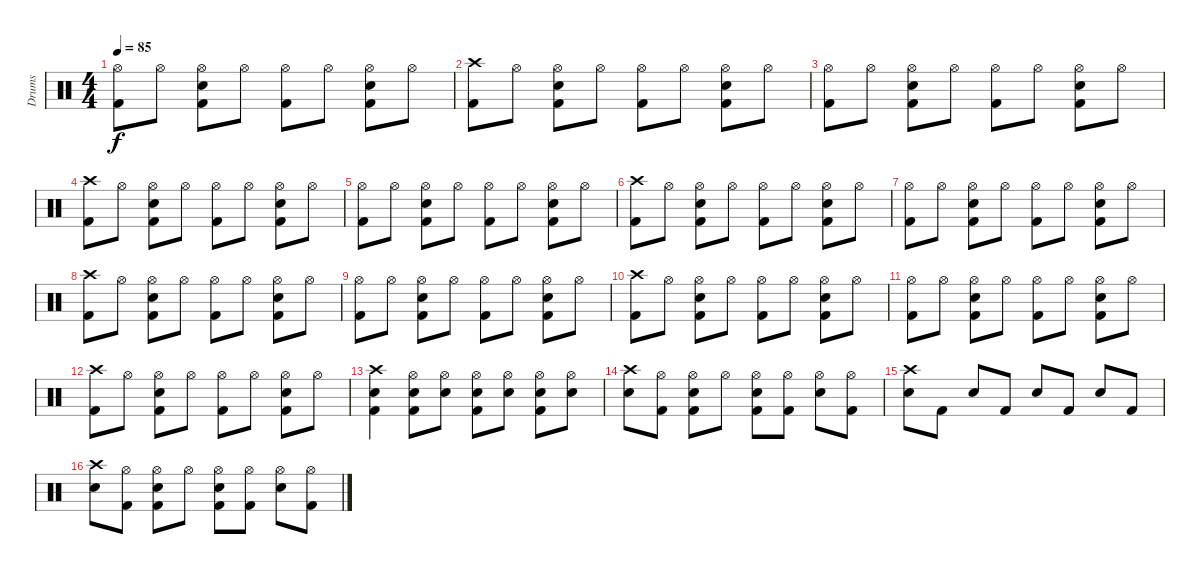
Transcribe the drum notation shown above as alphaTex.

\track ("Drums" "Drums") {instrument percussion}
\staff {score}
\articulation defaults
\ts (4 4)
\tempo 85
\clef neutral
\ks c
("Kick (hit) 2" "Hi-Hat (open)").8{dy f} "Hi-Hat (open)".8 ("Hi-Hat (open)" "Electric Snare (hit)" "Kick (hit) 2").8 "Hi-Hat (open)".8 ("Hi-Hat (open)" "Kick (hit) 2").8 "Hi-Hat (open)".8 ("Hi-Hat (open)" "Electric Snare (hit)" "Kick (hit) 2").8 "Hi-Hat (open)".8 |
("Crash high (hit)" "Kick (hit) 2").8 "Hi-Hat (open)".8 ("Hi-Hat (open)" "Electric Snare (hit)" "Kick (hit) 2").8 "Hi-Hat (open)".8 ("Hi-Hat (open)" "Kick (hit) 2").8 "Hi-Hat (open)".8 ("Hi-Hat (open)" "Electric Snare (hit)" "Kick (hit) 2").8 "Hi-Hat (open)".8 |
("Kick (hit) 2" "Hi-Hat (open)").8 "Hi-Hat (open)".8 ("Hi-Hat (open)" "Electric Snare (hit)" "Kick (hit) 2").8 "Hi-Hat (open)".8 ("Hi-Hat (open)" "Kick (hit) 2").8 "Hi-Hat (open)".8 ("Hi-Hat (open)" "Electric Snare (hit)" "Kick (hit) 2").8 "Hi-Hat (open)".8 |
("Crash high (hit)" "Kick (hit) 2").8 "Hi-Hat (open)".8 ("Hi-Hat (open)" "Electric Snare (hit)" "Kick (hit) 2").8 "Hi-Hat (open)".8 ("Hi-Hat (open)" "Kick (hit) 2").8 "Hi-Hat (open)".8 ("Hi-Hat (open)" "Electric Snare (hit)" "Kick (hit) 2").8 "Hi-Hat (open)".8 |
("Kick (hit) 2" "Hi-Hat (open)").8 "Hi-Hat (open)".8 ("Hi-Hat (open)" "Electric Snare (hit)" "Kick (hit) 2").8 "Hi-Hat (open)".8 ("Hi-Hat (open)" "Kick (hit) 2").8 "Hi-Hat (open)".8 ("Hi-Hat (open)" "Electric Snare (hit)" "Kick (hit) 2").8 "Hi-Hat (open)".8 |
("Crash high (hit)" "Kick (hit) 2").8 "Hi-Hat (open)".8 ("Hi-Hat (open)" "Electric Snare (hit)" "Kick (hit) 2").8 "Hi-Hat (open)".8 ("Hi-Hat (open)" "Kick (hit) 2").8 "Hi-Hat (open)".8 ("Hi-Hat (open)" "Electric Snare (hit)" "Kick (hit) 2").8 "Hi-Hat (open)".8 |
("Kick (hit) 2" "Hi-Hat (open)").8 "Hi-Hat (open)".8 ("Hi-Hat (open)" "Electric Snare (hit)" "Kick (hit) 2").8 "Hi-Hat (open)".8 ("Hi-Hat (open)" "Kick (hit) 2").8 "Hi-Hat (open)".8 ("Hi-Hat (open)" "Electric Snare (hit)" "Kick (hit) 2").8 "Hi-Hat (open)".8 |
("Crash high (hit)" "Kick (hit) 2").8 "Hi-Hat (open)".8 ("Hi-Hat (open)" "Electric Snare (hit)" "Kick (hit) 2").8 "Hi-Hat (open)".8 ("Hi-Hat (open)" "Kick (hit) 2").8 "Hi-Hat (open)".8 ("Hi-Hat (open)" "Electric Snare (hit)" "Kick (hit) 2").8 "Hi-Hat (open)".8 |
("Kick (hit) 2" "Hi-Hat (open)").8 "Hi-Hat (open)".8 ("Hi-Hat (open)" "Electric Snare (hit)" "Kick (hit) 2").8 "Hi-Hat (open)".8 ("Hi-Hat (open)" "Kick (hit) 2").8 "Hi-Hat (open)".8 ("Hi-Hat (open)" "Electric Snare (hit)" "Kick (hit) 2").8 "Hi-Hat (open)".8 |
("Crash high (hit)" "Kick (hit) 2").8 "Hi-Hat (open)".8 ("Hi-Hat (open)" "Electric Snare (hit)" "Kick (hit) 2").8 "Hi-Hat (open)".8 ("Hi-Hat (open)" "Kick (hit) 2").8 "Hi-Hat (open)".8 ("Hi-Hat (open)" "Electric Snare (hit)" "Kick (hit) 2").8 "Hi-Hat (open)".8 |
("Kick (hit) 2" "Hi-Hat (open)").8 "Hi-Hat (open)".8 ("Hi-Hat (open)" "Electric Snare (hit)" "Kick (hit) 2").8 "Hi-Hat (open)".8 ("Hi-Hat (open)" "Kick (hit) 2").8 "Hi-Hat (open)".8 ("Hi-Hat (open)" "Electric Snare (hit)" "Kick (hit) 2").8 "Hi-Hat (open)".8 |
("Crash high (hit)" "Kick (hit) 2").8 "Hi-Hat (open)".8 ("Hi-Hat (open)" "Electric Snare (hit)" "Kick (hit) 2").8 "Hi-Hat (open)".8 ("Hi-Hat (open)" "Kick (hit) 2").8 "Hi-Hat (open)".8 ("Hi-Hat (open)" "Electric Snare (hit)" "Kick (hit) 2").8 "Hi-Hat (open)".8 |
("Kick (hit) 2" "Electric Snare (hit)" "Crash high (hit)").4 ("Hi-Hat (open)" "Electric Snare (hit)" "Kick (hit) 2").8 ("Hi-Hat (open)" "Electric Snare (hit)").8 ("Hi-Hat (open)" "Kick (hit) 2" "Electric Snare (hit)").8 ("Hi-Hat (open)" "Electric Snare (hit)").8 ("Hi-Hat (open)" "Electric Snare (hit)" "Kick (hit) 2").8 ("Hi-Hat (open)" "Electric Snare (hit)").8 |
("Electric Snare (hit)" "Crash high (hit)").8 ("Hi-Hat (open)" "Kick (hit) 2").8 ("Electric Snare (hit)" "Hi-Hat (open)" "Kick (hit) 2").8 "Hi-Hat (open)".8 ("Electric Snare (hit)" "Hi-Hat (open)" "Kick (hit) 2").8 ("Hi-Hat (open)" "Kick (hit) 2").8 ("Electric Snare (hit)" "Hi-Hat (open)").8 ("Hi-Hat (open)" "Kick (hit) 2").8 |
("Crash high (hit)" "Electric Snare (hit)").8 "Kick (hit) 2".8 "Electric Snare (hit)".8 "Kick (hit) 2".8 "Electric Snare (hit)".8 "Kick (hit) 2".8 "Electric Snare (hit)".8 "Kick (hit) 2".8 |
("Electric Snare (hit)" "Crash high (hit)").8 ("Hi-Hat (open)" "Kick (hit) 2").8 ("Electric Snare (hit)" "Hi-Hat (open)" "Kick (hit) 2").8 "Hi-Hat (open)".8 ("Electric Snare (hit)" "Hi-Hat (open)" "Kick (hit) 2").8 ("Hi-Hat (open)" "Kick (hit) 2").8 ("Electric Snare (hit)" "Hi-Hat (open)").8 ("Hi-Hat (open)" "Kick (hit) 2").8
